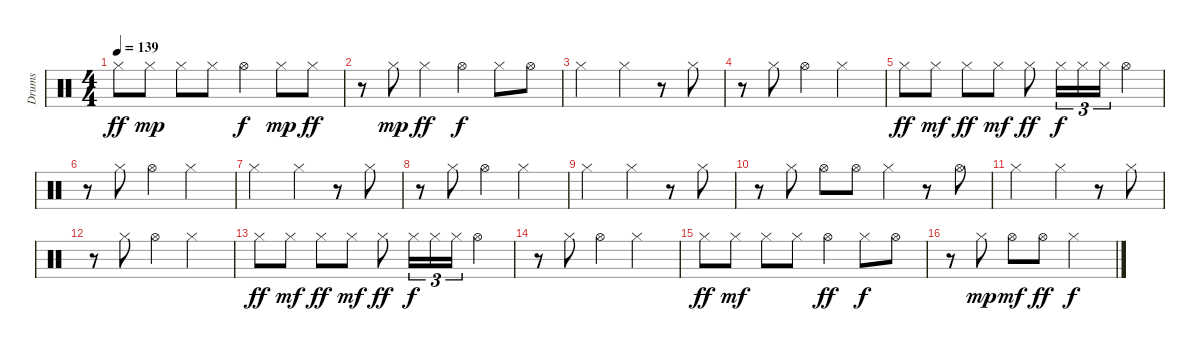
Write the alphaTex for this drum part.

\track ("Drums" "Drums") {instrument percussion}
\staff {score}
\articulation defaults
\ts (4 4)
\tempo 139
\clef neutral
\ks c "Hi-Hat (closed)".8{dy ff} "Hi-Hat (closed)".8{dy mp} "Hi-Hat (closed)".8 "Hi-Hat (closed)".8 "Hi-Hat (open)".4{dy f} "Hi-Hat (closed)".8{dy mp} "Hi-Hat (closed)".8{dy ff}
|
r.8 "Hi-Hat (closed)".8{dy mp} "Hi-Hat (closed)".4{dy ff} "Hi-Hat (open)".4{dy f} "Hi-Hat (closed)".8 "Hi-Hat (open)".8 |
"Hi-Hat (closed)".2 "Hi-Hat (closed)".4 r.8 "Hi-Hat (closed)".8 |
r.8 "Hi-Hat (closed)".8 "Hi-Hat (open)".4 "Hi-Hat (closed)".2 |
"Hi-Hat (closed)".8{dy ff} "Hi-Hat (closed)".8{dy mf} "Hi-Hat (closed)".8{dy ff} "Hi-Hat (closed)".8{dy mf} "Hi-Hat (closed)".8{dy ff} "Hi-Hat (closed)".16{tu (3 2) dy f} "Hi-Hat (closed)".16{tu (3 2)} "Hi-Hat (closed)".16{tu (3 2)} "Hi-Hat (open)".4 |
r.8 "Hi-Hat (closed)".8 "Hi-Hat (open)".4 "Hi-Hat (closed)".2 |
"Hi-Hat (closed)".2 "Hi-Hat (closed)".4 r.8 "Hi-Hat (closed)".8 |
r.8 "Hi-Hat (closed)".8 "Hi-Hat (open)".4 "Hi-Hat (closed)".2 |
"Hi-Hat (closed)".2 "Hi-Hat (closed)".4 r.8 "Hi-Hat (closed)".8 |
r.8 "Hi-Hat (closed)".8 "Hi-Hat (open)".8 "Hi-Hat (open)".8 "Hi-Hat (closed)".4 r.8 "Hi-Hat (open)".8 |
"Hi-Hat (closed)".2 "Hi-Hat (closed)".4 r.8 "Hi-Hat (closed)".8 |
r.8 "Hi-Hat (closed)".8 "Hi-Hat (open)".4 "Hi-Hat (closed)".2 |
"Hi-Hat (closed)".8{dy ff} "Hi-Hat (closed)".8{dy mf} "Hi-Hat (closed)".8{dy ff} "Hi-Hat (closed)".8{dy mf} "Hi-Hat (closed)".8{dy ff} "Hi-Hat (closed)".16{tu (3 2) dy f} "Hi-Hat (closed)".16{tu (3 2)} "Hi-Hat (closed)".16{tu (3 2)} "Hi-Hat (open)".4 |
r.8 "Hi-Hat (closed)".8 "Hi-Hat (open)".4 "Hi-Hat (closed)".2 |
"Hi-Hat (closed)".8{dy ff} "Hi-Hat (closed)".8{dy mf} "Hi-Hat (closed)".8 "Hi-Hat (closed)".8 "Hi-Hat (open)".4{dy ff} "Hi-Hat (closed)".8{dy f} "Hi-Hat (open)".8 |
r.8 "Hi-Hat (closed)".8{dy mp} "Hi-Hat (open)".8{dy mf} "Hi-Hat (open)".8{dy ff} "Hi-Hat (closed)".2{dy f}
